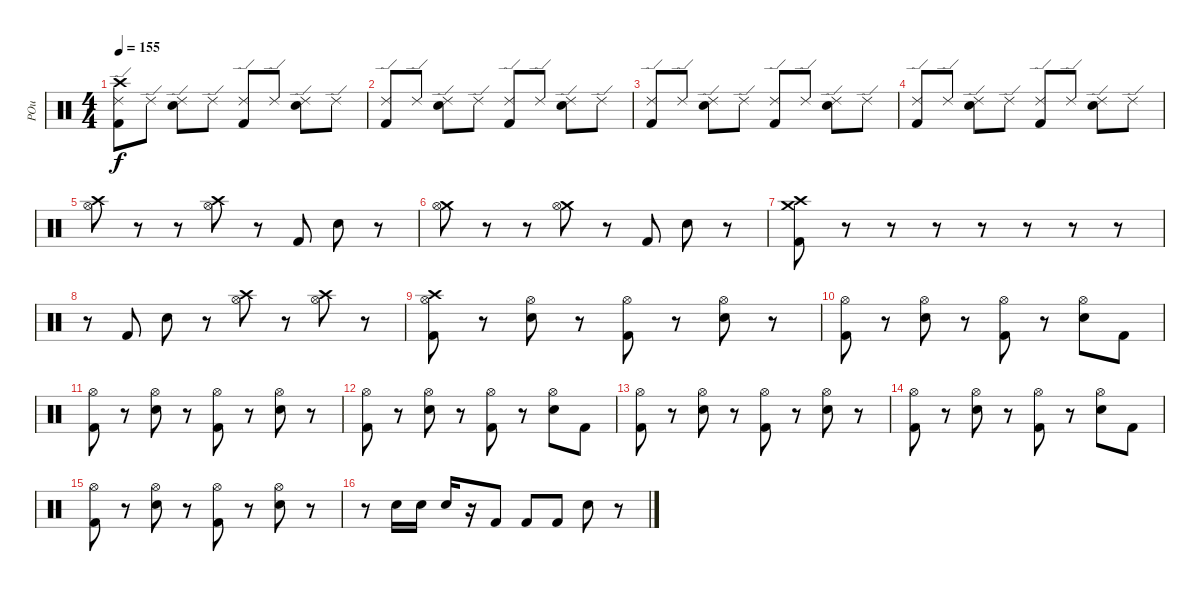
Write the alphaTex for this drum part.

\track ("POu" "POu") {instrument percussion}
\staff {score}
\articulation defaults
\ts (4 4)
\tempo 155
\clef neutral
\ks c
("Crash high (hit)" "Kick (hit) 2" "Ride (edge) 2").8{dy f} "Ride (edge) 2".8 ("Electric Snare (hit)" "Ride (edge) 2").8 "Ride (edge) 2".8 ("Kick (hit) 2" "Ride (edge) 2").8 "Ride (edge) 2".8 ("Electric Snare (hit)" "Ride (edge) 2").8 "Ride (edge) 2".8 |
("Kick (hit) 2" "Ride (edge) 2").8 "Ride (edge) 2".8 ("Electric Snare (hit)" "Ride (edge) 2").8 "Ride (edge) 2".8 ("Kick (hit) 2" "Ride (edge) 2").8 "Ride (edge) 2".8 ("Electric Snare (hit)" "Ride (edge) 2").8 "Ride (edge) 2".8 |
("Kick (hit) 2" "Ride (edge) 2").8 "Ride (edge) 2".8 ("Electric Snare (hit)" "Ride (edge) 2").8 "Ride (edge) 2".8 ("Kick (hit) 2" "Ride (edge) 2").8 "Ride (edge) 2".8 ("Electric Snare (hit)" "Ride (edge) 2").8 "Ride (edge) 2".8 |
("Kick (hit) 2" "Ride (edge) 2").8 "Ride (edge) 2".8 ("Electric Snare (hit)" "Ride (edge) 2").8 "Ride (edge) 2".8 ("Kick (hit) 2" "Ride (edge) 2").8 "Ride (edge) 2".8 ("Electric Snare (hit)" "Ride (edge) 2").8 "Ride (edge) 2".8 |
("Crash high (hit)" "Hi-Hat (open)").8 r.8 r.8 ("Crash high (hit)" "Hi-Hat (open)").8 r.8 "Kick (hit) 2".8 "Electric Snare (hit)".8 r.8 |
("Crash medium (hit)" "Hi-Hat (open)").8 r.8 r.8 ("Crash medium (hit)" "Hi-Hat (open)").8 r.8 "Kick (hit) 2".8 "Electric Snare (hit)".8 r.8 |
("Crash high (hit)" "Crash medium (hit)" "Kick (hit) 2").8 r.8 r.8 r.8 r.8 r.8 r.8 r.8 |
r.8 "Kick (hit) 2".8 "Electric Snare (hit)".8 r.8 ("Crash high (hit)" "Hi-Hat (open)").8 r.8 ("Crash high (hit)" "Hi-Hat (open)").8 r.8 |
("Crash high (hit)" "Kick (hit) 2" "Hi-Hat (open)").8 r.8 ("Electric Snare (hit)" "Hi-Hat (open)").8 r.8 ("Kick (hit) 2" "Hi-Hat (open)").8 r.8 ("Electric Snare (hit)" "Hi-Hat (open)").8 r.8 |
("Kick (hit) 2" "Hi-Hat (open)").8 r.8 ("Electric Snare (hit)" "Hi-Hat (open)").8 r.8 ("Kick (hit) 2" "Hi-Hat (open)").8 r.8 ("Electric Snare (hit)" "Hi-Hat (open)").8 "Kick (hit) 2".8 |
("Kick (hit) 2" "Hi-Hat (open)").8 r.8 ("Electric Snare (hit)" "Hi-Hat (open)").8 r.8 ("Kick (hit) 2" "Hi-Hat (open)").8 r.8 ("Electric Snare (hit)" "Hi-Hat (open)").8 r.8 |
("Kick (hit) 2" "Hi-Hat (open)").8 r.8 ("Electric Snare (hit)" "Hi-Hat (open)").8 r.8 ("Kick (hit) 2" "Hi-Hat (open)").8 r.8 ("Electric Snare (hit)" "Hi-Hat (open)").8 "Kick (hit) 2".8 |
("Kick (hit) 2" "Hi-Hat (open)").8 r.8 ("Electric Snare (hit)" "Hi-Hat (open)").8 r.8 ("Kick (hit) 2" "Hi-Hat (open)").8 r.8 ("Electric Snare (hit)" "Hi-Hat (open)").8 r.8 |
("Kick (hit) 2" "Hi-Hat (open)").8 r.8 ("Electric Snare (hit)" "Hi-Hat (open)").8 r.8 ("Kick (hit) 2" "Hi-Hat (open)").8 r.8 ("Electric Snare (hit)" "Hi-Hat (open)").8 "Kick (hit) 2".8 |
("Kick (hit) 2" "Hi-Hat (open)").8 r.8 ("Electric Snare (hit)" "Hi-Hat (open)").8 r.8 ("Kick (hit) 2" "Hi-Hat (open)").8 r.8 ("Electric Snare (hit)" "Hi-Hat (open)").8 r.8 |
r.8 "Electric Snare (hit)".16 "Electric Snare (hit)".16 "Electric Snare (hit)".16 r.16 "Kick (hit) 2".8 "Kick (hit) 2".8 "Kick (hit) 2".8 "Electric Snare (hit)".8 r.8
